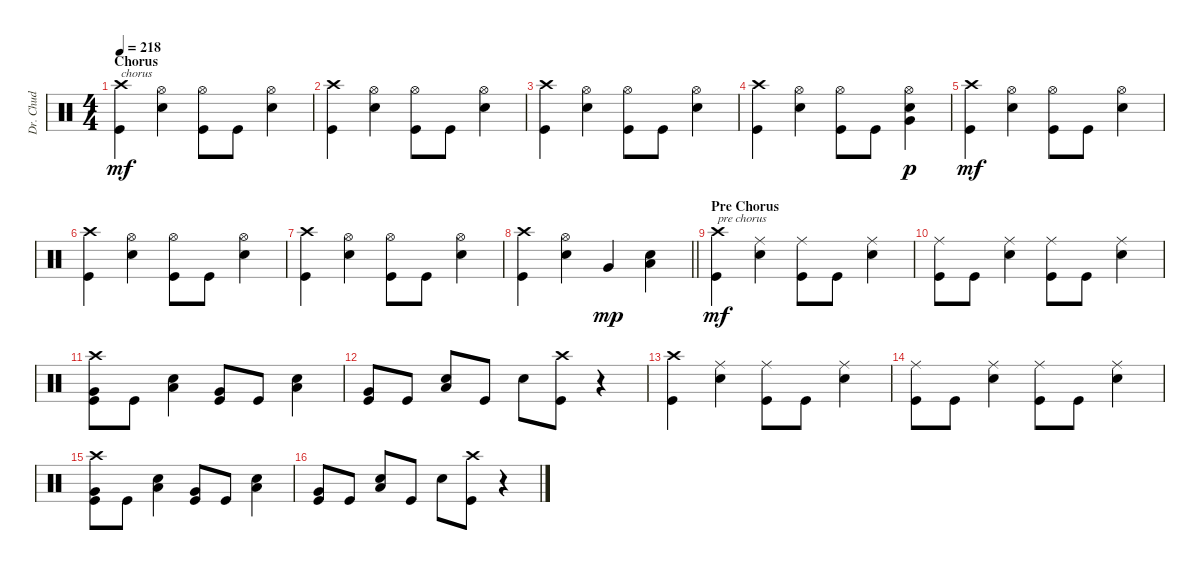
\track ("Dr. Chud" "Dr. Chud") {instrument percussion}
\staff {score}
\articulation defaults
\ts (4 4)
\section ("" "Chorus")
\tempo 218
\clef neutral
\ks c
("Crash high (hit)" "Kick (hit)").4{txt "chorus" dy mf} ("Hi-Hat (open)" "Electric Snare (hit)").4 ("Hi-Hat (open)" "Kick (hit)").8 "Kick (hit)".8 ("Hi-Hat (open)" "Electric Snare (hit)").4 |
("Crash high (hit)" "Kick (hit)").4 ("Hi-Hat (open)" "Electric Snare (hit)").4 ("Hi-Hat (open)" "Kick (hit)").8 "Kick (hit)".8 ("Hi-Hat (open)" "Electric Snare (hit)").4 |
("Crash high (hit)" "Kick (hit)").4 ("Hi-Hat (open)" "Electric Snare (hit)").4 ("Hi-Hat (open)" "Kick (hit)").8 "Kick (hit)".8 ("Hi-Hat (open)" "Electric Snare (hit)").4 |
("Crash high (hit)" "Kick (hit)").4 ("Hi-Hat (open)" "Electric Snare (hit)").4 ("Hi-Hat (open)" "Kick (hit)").8 "Kick (hit)".8 ("Hi-Hat (open)" "Very Low Tom (hit)" "Electric Snare (hit)").4{dy p} |
("Crash high (hit)" "Kick (hit)").4{dy mf} ("Hi-Hat (open)" "Electric Snare (hit)").4 ("Hi-Hat (open)" "Kick (hit)").8 "Kick (hit)".8 ("Hi-Hat (open)" "Electric Snare (hit)").4 |
("Crash high (hit)" "Kick (hit)").4 ("Hi-Hat (open)" "Electric Snare (hit)").4 ("Hi-Hat (open)" "Kick (hit)").8 "Kick (hit)".8 ("Hi-Hat (open)" "Electric Snare (hit)").4 |
("Crash high (hit)" "Kick (hit)").4 ("Hi-Hat (open)" "Electric Snare (hit)").4 ("Hi-Hat (open)" "Kick (hit)").8 "Kick (hit)".8 ("Hi-Hat (open)" "Electric Snare (hit)").4 |
\barLineRight lightlight
("Crash high (hit)" "Kick (hit)").4 ("Hi-Hat (open)" "Electric Snare (hit)").4 "Very Low Tom (hit)".4{dy mp} ("Low Floor Tom (hit)" "Electric Snare (hit)").4 |
\section ("" "Pre Chorus")
("Crash high (hit)" "Kick (hit)").4{txt "pre chorus" dy mf} ("Ride (middle)" "Electric Snare (hit)").4 ("Ride (middle)" "Kick (hit)").8 "Kick (hit)".8 ("Ride (middle)" "Electric Snare (hit)").4 |
("Ride (middle)" "Kick (hit)").8 "Kick (hit)".8 ("Ride (middle)" "Electric Snare (hit)").4 ("Ride (middle)" "Kick (hit)").8 "Kick (hit)".8 ("Ride (middle)" "Electric Snare (hit)").4 |
("Crash high (hit)" "Very Low Tom (hit)" "Kick (hit)").8 "Kick (hit)".8 ("Low Floor Tom (hit)" "Electric Snare (hit)").4 ("Very Low Tom (hit)" "Kick (hit)").8 "Kick (hit)".8 ("Low Floor Tom (hit)" "Electric Snare (hit)").4 |
("Very Low Tom (hit)" "Kick (hit)").8 "Kick (hit)".8 ("Low Floor Tom (hit)" "Electric Snare (hit)").8 "Kick (hit)".8 "Electric Snare (hit)".8 ("Crash high (hit)" "Kick (hit)").8 r.4 |
("Crash high (hit)" "Kick (hit)").4 ("Ride (middle)" "Electric Snare (hit)").4 ("Ride (middle)" "Kick (hit)").8 "Kick (hit)".8 ("Ride (middle)" "Electric Snare (hit)").4 |
("Ride (middle)" "Kick (hit)").8 "Kick (hit)".8 ("Ride (middle)" "Electric Snare (hit)").4 ("Ride (middle)" "Kick (hit)").8 "Kick (hit)".8 ("Ride (middle)" "Electric Snare (hit)").4 |
("Crash high (hit)" "Very Low Tom (hit)" "Kick (hit)").8 "Kick (hit)".8 ("Low Floor Tom (hit)" "Electric Snare (hit)").4 ("Very Low Tom (hit)" "Kick (hit)").8 "Kick (hit)".8 ("Low Floor Tom (hit)" "Electric Snare (hit)").4 |
("Very Low Tom (hit)" "Kick (hit)").8 "Kick (hit)".8 ("Low Floor Tom (hit)" "Electric Snare (hit)").8 "Kick (hit)".8 "Electric Snare (hit)".8 ("Crash high (hit)" "Kick (hit)").8 r.4
